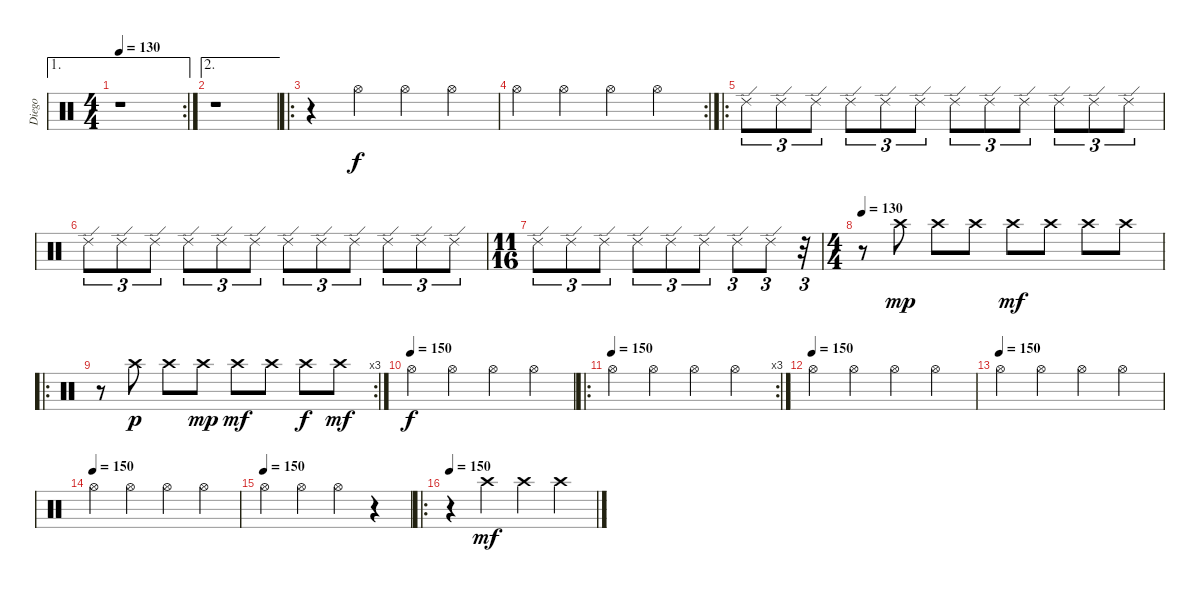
\track ("Diego" "Diego") {instrument percussion}
\staff {score}
\articulation defaults
\ae 1
\rc 2
\ts (4 4)
\tempo 130
\clef neutral
\ks c
r.1{dy f} |
\ae 2
r.1 |
\ro
r.4 "Hi-Hat (open)".4 "Hi-Hat (open)".4 "Hi-Hat (open)".4 |
\rc 2 "Hi-Hat (open)".4 "Hi-Hat (open)".4 "Hi-Hat (open)".4 "Hi-Hat (open)".4
|
\ro "Ride (edge) 2".8{tu (3 2)} "Ride (edge) 2".8{tu (3 2)} "Ride (edge) 2".8{tu (3 2)} "Ride (edge) 2".8{tu (3 2)} "Ride (edge) 2".8{tu (3 2)} "Ride (edge) 2".8{tu (3 2)} "Ride (edge) 2".8{tu (3 2)} "Ride (edge) 2".8{tu (3 2)} "Ride (edge) 2".8{tu (3 2)} "Ride (edge) 2".8{tu (3 2)} "Ride (edge) 2".8{tu (3 2)} "Ride (edge) 2".8{tu (3 2)}
|
"Ride (edge) 2".8{tu (3 2)} "Ride (edge) 2".8{tu (3 2)} "Ride (edge) 2".8{tu (3 2)} "Ride (edge) 2".8{tu (3 2)} "Ride (edge) 2".8{tu (3 2)} "Ride (edge) 2".8{tu (3 2)} "Ride (edge) 2".8{tu (3 2)} "Ride (edge) 2".8{tu (3 2)} "Ride (edge) 2".8{tu (3 2)} "Ride (edge) 2".8{tu (3 2)} "Ride (edge) 2".8{tu (3 2)} "Ride (edge) 2".8{tu (3 2)} |
\ts (11 16)
"Ride (edge) 2".8{tu (3 2)} "Ride (edge) 2".8{tu (3 2)} "Ride (edge) 2".8{tu (3 2)} "Ride (edge) 2".8{tu (3 2)} "Ride (edge) 2".8{tu (3 2)} "Ride (edge) 2".8{tu (3 2)} "Ride (edge) 2".8{tu (3 2)} "Ride (edge) 2".8{tu (3 2)} r.32{tu (3 2)} |
\ts (4 4)
\tempo 130
r.8 "Crash high (hit)".8{dy mp} "Crash high (hit)".8 "Crash high (hit)".8 "Crash high (hit)".8{dy mf} "Crash high (hit)".8 "Crash high (hit)".8 "Crash high (hit)".8 |
\ro
\rc 3
r.8 "Crash high (hit)".8{dy p} "Crash high (hit)".8 "Crash high (hit)".8{dy mp} "Crash high (hit)".8{dy mf} "Crash high (hit)".8 "Crash high (hit)".8{dy f} "Crash high (hit)".8{dy mf} |
\tempo (150)
"Hi-Hat (open)".4{dy f} "Hi-Hat (open)".4 "Hi-Hat (open)".4 "Hi-Hat (open)".4 |
\ro
\rc 3
\tempo (150)
"Hi-Hat (open)".4 "Hi-Hat (open)".4 "Hi-Hat (open)".4 "Hi-Hat (open)".4 |
\tempo (150)
"Hi-Hat (open)".4 "Hi-Hat (open)".4 "Hi-Hat (open)".4 "Hi-Hat (open)".4 |
\tempo (150)
"Hi-Hat (open)".4 "Hi-Hat (open)".4 "Hi-Hat (open)".4 "Hi-Hat (open)".4 |
\tempo (150)
"Hi-Hat (open)".4 "Hi-Hat (open)".4 "Hi-Hat (open)".4 "Hi-Hat (open)".4 |
\tempo (150)
"Hi-Hat (open)".4 "Hi-Hat (open)".4 "Hi-Hat (open)".4 r.4 |
\ro
\tempo 150
r.4 "Crash high (hit)".4{dy mf} "Crash high (hit)".4 "Crash high (hit)".4
